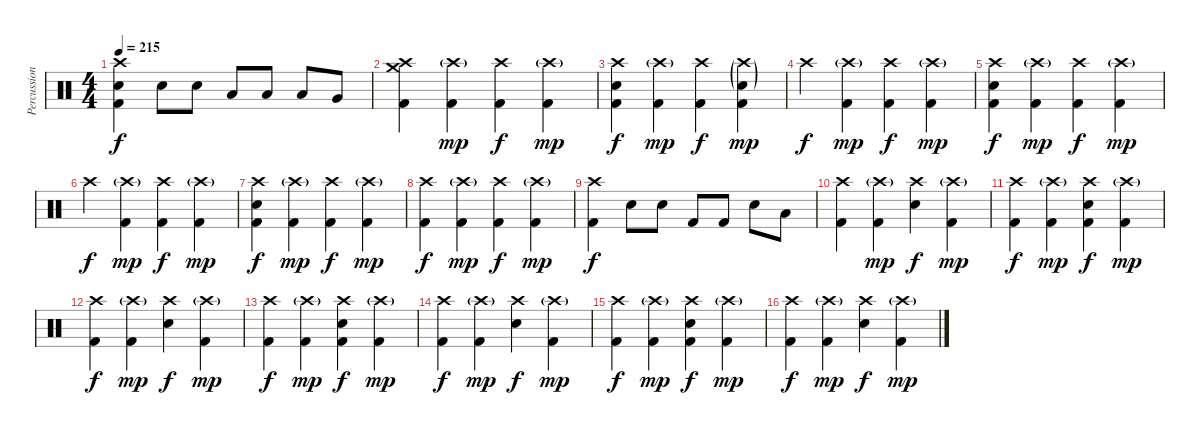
\track ("Percussion" "Percussion") {instrument percussion}
\staff {score}
\articulation defaults
\ts (4 4)
\tempo 215
\clef neutral
\ks c
("Crash high (hit)" "Electric Snare (hit)" "Kick (hit) 2").4{dy f} "Electric Snare (hit)".8 "Electric Snare (hit)".8 "Low Tom (hit)".8 "Low Tom (hit)".8 "Low Tom (hit)".8 "Very Low Tom (hit)".8 |
("Crash high (hit)" "Crash medium (hit)" "Kick (hit) 2").4 ("Crash high (hit)"{g} "Kick (hit) 2").4{dy mp} ("Crash high (hit)" "Kick (hit) 2").4{dy f} ("Crash high (hit)"{g} "Kick (hit) 2").4{dy mp} |
("Crash high (hit)" "Electric Snare (hit)" "Kick (hit) 2").4{dy f} ("Crash high (hit)"{g} "Kick (hit) 2").4{dy mp} ("Crash high (hit)" "Kick (hit) 2").4{dy f} ("Crash high (hit)"{g} "Electric Snare (hit)"{g} "Kick (hit) 2").4{dy mp} |
"Crash high (hit)".4{dy f} ("Crash high (hit)"{g} "Kick (hit) 2").4{dy mp} ("Crash high (hit)" "Kick (hit) 2").4{dy f} ("Crash high (hit)"{g} "Kick (hit) 2").4{dy mp} |
("Crash high (hit)" "Electric Snare (hit)" "Kick (hit) 2").4{dy f} ("Crash high (hit)"{g} "Kick (hit) 2").4{dy mp} ("Crash high (hit)" "Kick (hit) 2").4{dy f} ("Crash high (hit)"{g} "Kick (hit) 2").4{dy mp} |
"Crash high (hit)".4{dy f} ("Crash high (hit)"{g} "Kick (hit) 2").4{dy mp} ("Crash high (hit)" "Kick (hit) 2").4{dy f} ("Crash high (hit)"{g} "Kick (hit) 2").4{dy mp} |
("Crash high (hit)" "Electric Snare (hit)" "Kick (hit) 2").4{dy f} ("Crash high (hit)"{g} "Kick (hit) 2").4{dy mp} ("Crash high (hit)" "Kick (hit) 2").4{dy f} ("Crash high (hit)"{g} "Kick (hit) 2").4{dy mp} |
("Crash high (hit)" "Kick (hit) 2").4{dy f} ("Crash high (hit)"{g} "Kick (hit) 2").4{dy mp} ("Crash high (hit)" "Kick (hit) 2").4{dy f} ("Crash high (hit)"{g} "Kick (hit) 2").4{dy mp} |
("Crash high (hit)" "Kick (hit) 2").4{dy f} "Electric Snare (hit)".8 "Electric Snare (hit)".8 "Kick (hit) 2".8 "Kick (hit) 2".8 "Electric Snare (hit)".8 "Low Tom (hit)".8 |
("Crash high (hit)" "Kick (hit) 2").4 ("Crash high (hit)"{g} "Kick (hit) 2").4{dy mp} ("Crash high (hit)" "Electric Snare (hit)").4{dy f} ("Crash high (hit)"{g} "Kick (hit) 2").4{dy mp} |
("Crash high (hit)" "Kick (hit) 2").4{dy f} ("Crash high (hit)"{g} "Kick (hit) 2").4{dy mp} ("Crash high (hit)" "Electric Snare (hit)" "Kick (hit) 2").4{dy f} ("Crash high (hit)"{g} "Kick (hit) 2").4{dy mp} |
("Crash high (hit)" "Kick (hit) 2").4{dy f} ("Crash high (hit)"{g} "Kick (hit) 2").4{dy mp} ("Crash high (hit)" "Electric Snare (hit)").4{dy f} ("Crash high (hit)"{g} "Kick (hit) 2").4{dy mp} |
("Crash high (hit)" "Kick (hit) 2").4{dy f} ("Crash high (hit)"{g} "Kick (hit) 2").4{dy mp} ("Crash high (hit)" "Electric Snare (hit)" "Kick (hit) 2").4{dy f} ("Crash high (hit)"{g} "Kick (hit) 2").4{dy mp} |
("Crash high (hit)" "Kick (hit) 2").4{dy f} ("Crash high (hit)"{g} "Kick (hit) 2").4{dy mp} ("Crash high (hit)" "Electric Snare (hit)").4{dy f} ("Crash high (hit)"{g} "Kick (hit) 2").4{dy mp} |
("Crash high (hit)" "Kick (hit) 2").4{dy f} ("Crash high (hit)"{g} "Kick (hit) 2").4{dy mp} ("Crash high (hit)" "Electric Snare (hit)" "Kick (hit) 2").4{dy f} ("Crash high (hit)"{g} "Kick (hit) 2").4{dy mp} |
("Crash high (hit)" "Kick (hit) 2").4{dy f} ("Crash high (hit)"{g} "Kick (hit) 2").4{dy mp} ("Crash high (hit)" "Electric Snare (hit)").4{dy f} ("Crash high (hit)"{g} "Kick (hit) 2").4{dy mp}
